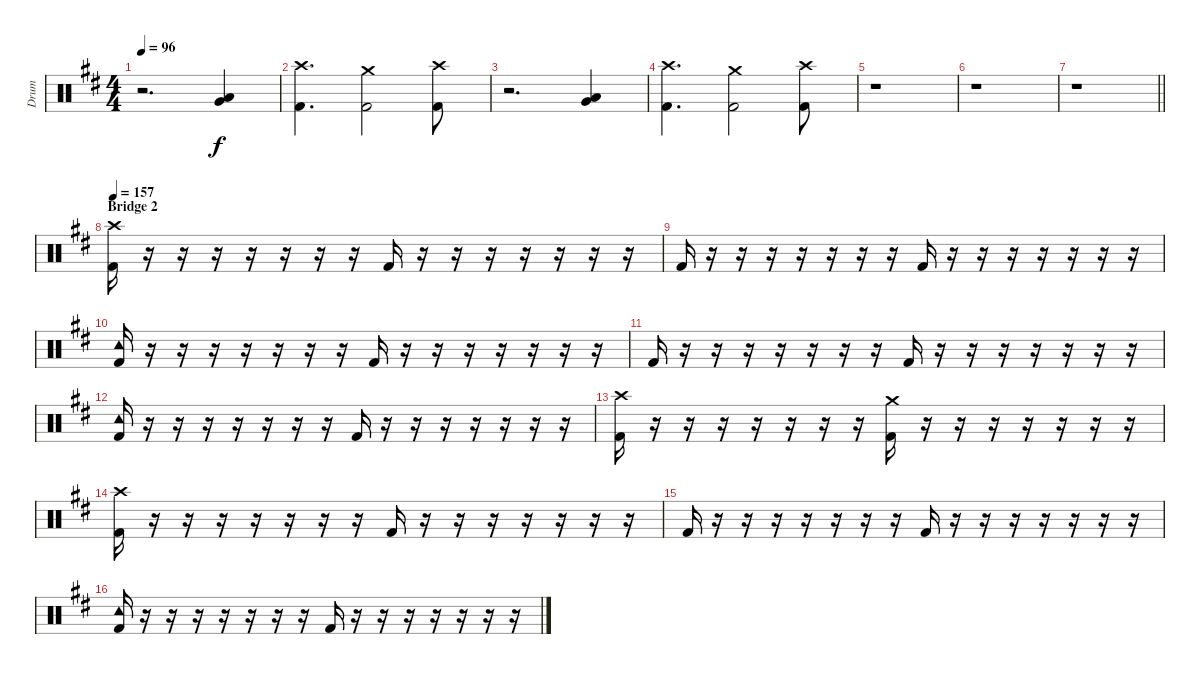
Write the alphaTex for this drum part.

\track ("Drum" "Drum") {instrument percussion}
\staff {score}
\articulation defaults
\ts (4 4)
\tempo 96
\clef neutral
\ks d
r.2{d dy f} ("Very Low Tom (hit)" "Low Tom (hit)").4 |
("Kick (hit) 2" "Crash high (hit)").4{d} ("Kick (hit) 2" "Crash medium (hit)").2 ("Kick (hit) 2" "Crash high (hit)").8 |
r.2{d} ("Very Low Tom (hit)" "Low Tom (hit)").4 |
("Kick (hit) 2" "Crash high (hit)").4{d} ("Kick (hit) 2" "Crash medium (hit)").2 ("Kick (hit) 2" "Crash high (hit)").8 |
r.1 |
r.1 |
\barLineRight lightlight
r.1 |
\section ("" "Bridge 2")
\tempo 157
("Kick (hit) 2" "Crash high (hit)").16 r.16 r.16 r.16 r.16 r.16 r.16 r.16 "Kick (hit) 2".16 r.16 r.16 r.16 r.16 r.16 r.16 r.16 |
"Kick (hit) 2".16 r.16 r.16 r.16 r.16 r.16 r.16 r.16 "Kick (hit) 2".16 r.16 r.16 r.16 r.16 r.16 r.16 r.16 |
("Kick (hit) 2" "Tambourine (hit)").16 r.16 r.16 r.16 r.16 r.16 r.16 r.16 "Kick (hit) 2".16 r.16 r.16 r.16 r.16 r.16 r.16 r.16 |
"Kick (hit) 2".16 r.16 r.16 r.16 r.16 r.16 r.16 r.16 "Kick (hit) 2".16 r.16 r.16 r.16 r.16 r.16 r.16 r.16 |
("Kick (hit) 2" "Tambourine (hit)").16 r.16 r.16 r.16 r.16 r.16 r.16 r.16 "Kick (hit) 2".16 r.16 r.16 r.16 r.16 r.16 r.16 r.16 |
("Kick (hit) 2" "Crash high (hit)").16 r.16 r.16 r.16 r.16 r.16 r.16 r.16 ("Kick (hit) 2" "Crash medium (hit)").16 r.16 r.16 r.16 r.16 r.16 r.16 r.16 |
("Kick (hit) 2" "Crash high (hit)").16 r.16 r.16 r.16 r.16 r.16 r.16 r.16 "Kick (hit) 2".16 r.16 r.16 r.16 r.16 r.16 r.16 r.16 |
"Kick (hit) 2".16 r.16 r.16 r.16 r.16 r.16 r.16 r.16 "Kick (hit) 2".16 r.16 r.16 r.16 r.16 r.16 r.16 r.16 |
("Kick (hit) 2" "Tambourine (hit)").16 r.16 r.16 r.16 r.16 r.16 r.16 r.16 "Kick (hit) 2".16 r.16 r.16 r.16 r.16 r.16 r.16 r.16
